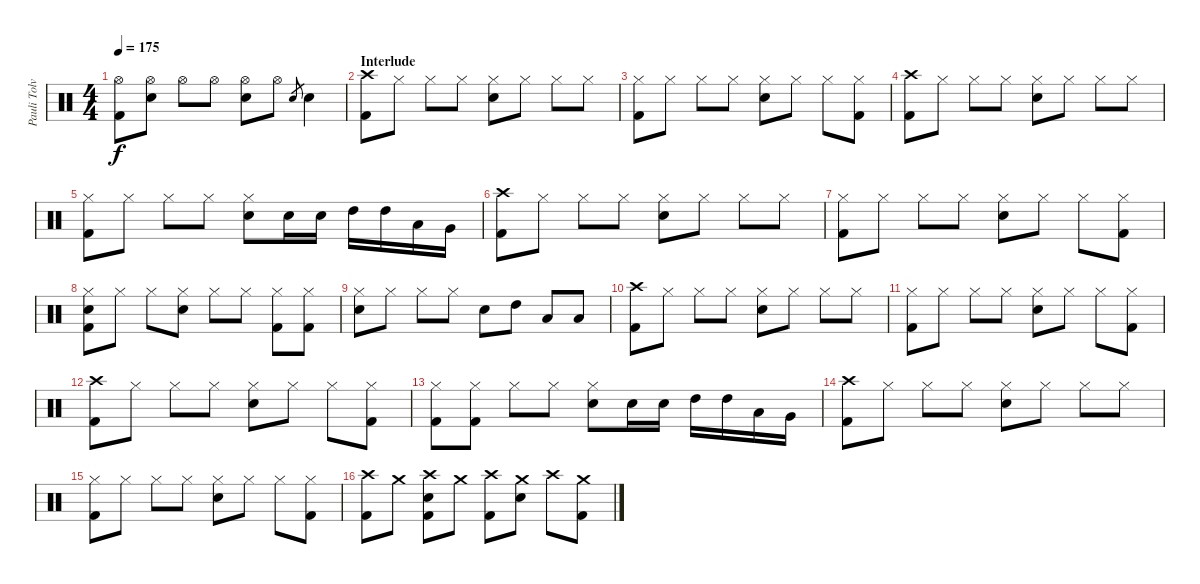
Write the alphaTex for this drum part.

\track ("Pauli Tolvanen-Drums" "Pauli Tolv") {instrument percussion}
\staff {score}
\articulation defaults
\ts (4 4)
\tempo 175
\clef neutral
\ks c
("Hi-Hat (open)" "Kick (hit) 2").8{dy f} ("Hi-Hat (open)" "Snare (hit) 2").8 "Hi-Hat (open)".8 "Hi-Hat (open)".8 ("Hi-Hat (open)" "Snare (hit) 2").8 "Hi-Hat (open)".8 "Snare (hit) 2".8{gr} "Snare (hit) 2".4 |
\section ("" "Interlude")
("Crash high (hit)" "Kick (hit) 2").8 "Hi-Hat (closed)".8 "Hi-Hat (closed)".8 "Hi-Hat (closed)".8 ("Hi-Hat (closed)" "Snare (hit) 2").8 "Hi-Hat (closed)".8 "Hi-Hat (closed)".8 "Hi-Hat (closed)".8 |
("Hi-Hat (closed)" "Kick (hit) 2").8 "Hi-Hat (closed)".8 "Hi-Hat (closed)".8 "Hi-Hat (closed)".8 ("Hi-Hat (closed)" "Snare (hit) 2").8 "Hi-Hat (closed)".8 "Hi-Hat (closed)".8 ("Hi-Hat (closed)" "Kick (hit) 2").8 |
("Crash high (hit)" "Kick (hit) 2").8 "Hi-Hat (closed)".8 "Hi-Hat (closed)".8 "Hi-Hat (closed)".8 ("Hi-Hat (closed)" "Snare (hit) 2").8 "Hi-Hat (closed)".8 "Hi-Hat (closed)".8 "Hi-Hat (closed)".8 |
("Hi-Hat (closed)" "Kick (hit) 2").8 "Hi-Hat (closed)".8 "Hi-Hat (closed)".8 "Hi-Hat (closed)".8 ("Hi-Hat (closed)" "Snare (hit) 2").8 "Snare (hit) 2".16 "Snare (hit) 2".16 "High Tom (hit)".16 "High Tom (hit)".16 "Low Tom (hit)".16 "Very Low Tom (hit)".16 |
("Crash high (hit)" "Kick (hit) 2").8 "Hi-Hat (closed)".8 "Hi-Hat (closed)".8 "Hi-Hat (closed)".8 ("Hi-Hat (closed)" "Snare (hit) 2").8 "Hi-Hat (closed)".8 "Hi-Hat (closed)".8 "Hi-Hat (closed)".8 |
("Hi-Hat (closed)" "Kick (hit) 2").8 "Hi-Hat (closed)".8 "Hi-Hat (closed)".8 "Hi-Hat (closed)".8 ("Hi-Hat (closed)" "Snare (hit) 2").8 "Hi-Hat (closed)".8 "Hi-Hat (closed)".8 ("Hi-Hat (closed)" "Kick (hit) 2").8 |
("Hi-Hat (closed)" "Snare (hit) 2" "Kick (hit) 2").8 "Hi-Hat (closed)".8 "Hi-Hat (closed)".8 ("Hi-Hat (closed)" "Snare (hit) 2").8 "Hi-Hat (closed)".8 "Hi-Hat (closed)".8 ("Hi-Hat (closed)" "Kick (hit) 2").8 ("Hi-Hat (closed)" "Kick (hit) 2").8 |
("Hi-Hat (closed)" "Snare (hit) 2").8 "Hi-Hat (closed)".8 "Hi-Hat (closed)".8 "Hi-Hat (closed)".8 "Snare (hit) 2".8 "High Tom (hit)".8 "Low Tom (hit)".8 "Low Floor Tom (hit)".8 |
("Crash high (hit)" "Kick (hit) 2").8 "Hi-Hat (closed)".8 "Hi-Hat (closed)".8 "Hi-Hat (closed)".8 ("Hi-Hat (closed)" "Snare (hit) 2").8 "Hi-Hat (closed)".8 "Hi-Hat (closed)".8 "Hi-Hat (closed)".8 |
("Hi-Hat (closed)" "Kick (hit) 2").8 "Hi-Hat (closed)".8 "Hi-Hat (closed)".8 "Hi-Hat (closed)".8 ("Hi-Hat (closed)" "Snare (hit) 2").8 "Hi-Hat (closed)".8 "Hi-Hat (closed)".8 ("Hi-Hat (closed)" "Kick (hit) 2").8 |
("Crash high (hit)" "Kick (hit) 2").8 "Hi-Hat (closed)".8 "Hi-Hat (closed)".8 "Hi-Hat (closed)".8 ("Hi-Hat (closed)" "Snare (hit) 2").8 "Hi-Hat (closed)".8 "Hi-Hat (closed)".8 ("Hi-Hat (closed)" "Kick (hit) 2").8 |
("Hi-Hat (closed)" "Kick (hit) 2").8 ("Hi-Hat (closed)" "Kick (hit) 2").8 "Hi-Hat (closed)".8 "Hi-Hat (closed)".8 ("Hi-Hat (closed)" "Snare (hit) 2").8 "Snare (hit) 2".16 "Snare (hit) 2".16 "High Tom (hit)".16 "High Tom (hit)".16 "Low Tom (hit)".16 "Very Low Tom (hit)".16 |
("Crash high (hit)" "Kick (hit) 2").8 "Hi-Hat (closed)".8 "Hi-Hat (closed)".8 "Hi-Hat (closed)".8 ("Hi-Hat (closed)" "Snare (hit) 2").8 "Hi-Hat (closed)".8 "Hi-Hat (closed)".8 "Hi-Hat (closed)".8 |
("Hi-Hat (closed)" "Kick (hit) 2").8 "Hi-Hat (closed)".8 "Hi-Hat (closed)".8 "Hi-Hat (closed)".8 ("Hi-Hat (closed)" "Snare (hit) 2").8 "Hi-Hat (closed)".8 "Hi-Hat (closed)".8 ("Hi-Hat (closed)" "Kick (hit) 2").8 |
("Crash high (hit)" "Kick (hit) 2").8 "Crash medium (hit)".8 ("Crash high (hit)" "Snare (hit) 2" "Kick (hit) 2").8 "Crash medium (hit)".8 ("Crash high (hit)" "Kick (hit) 2").8 ("Crash medium (hit)" "Snare (hit) 2").8 "Crash high (hit)".8 ("Crash medium (hit)" "Kick (hit) 2").8
